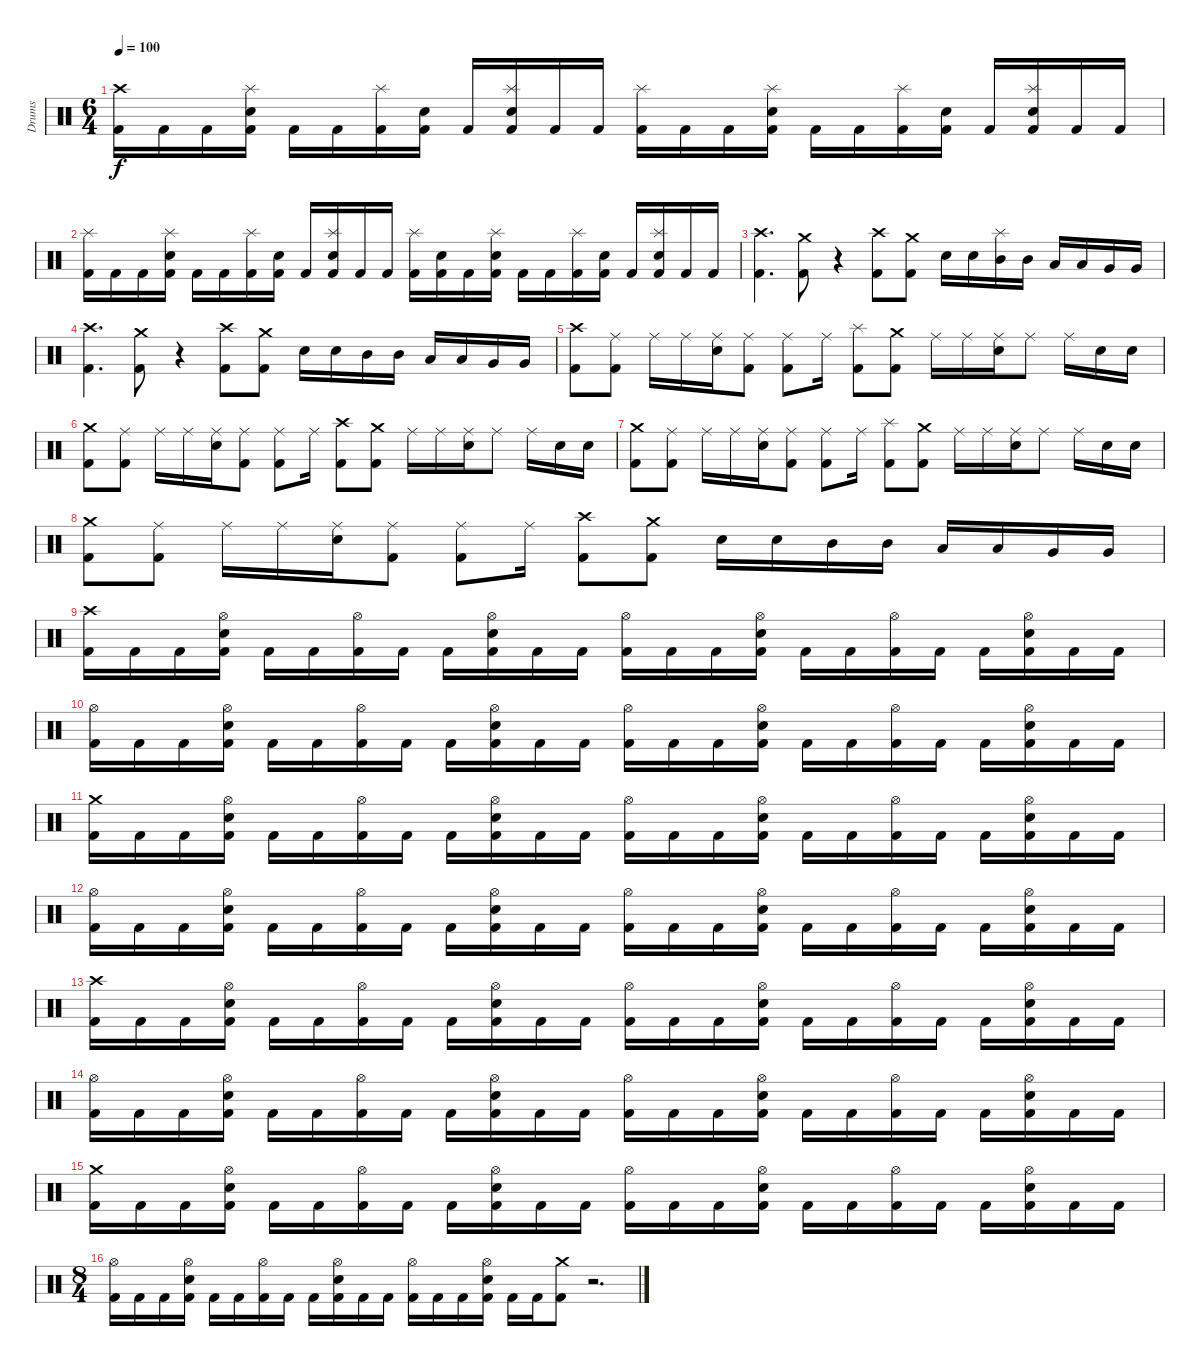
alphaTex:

\track ("Drums" "Drums") {instrument percussion}
\staff {score}
\articulation defaults
\ts (6 4)
\tempo 100
\clef neutral
\ks c
("Crash high (hit)" "Kick (hit) 2").16{dy f} "Kick (hit) 2".16 "Kick (hit) 2".16 ("Splash (hit)" "Electric Snare (hit)" "Kick (hit) 2").16 "Kick (hit) 2".16 "Kick (hit) 2".16 ("Splash (hit)" "Kick (hit) 2").16 ("Electric Snare (hit)" "Kick (hit) 2").16 "Kick (hit) 2".16 ("Splash (hit)" "Electric Snare (hit)" "Kick (hit) 2").16 "Kick (hit) 2".16 "Kick (hit) 2".16 ("Splash (hit)" "Kick (hit) 2").16 "Kick (hit) 2".16 "Kick (hit) 2".16 ("Splash (hit)" "Electric Snare (hit)" "Kick (hit) 2").16 "Kick (hit) 2".16 "Kick (hit) 2".16 ("Splash (hit)" "Kick (hit) 2").16 ("Electric Snare (hit)" "Kick (hit) 2").16 "Kick (hit) 2".16 ("Splash (hit)" "Electric Snare (hit)" "Kick (hit) 2").16 "Kick (hit) 2".16 "Kick (hit) 2".16 |
("Splash (hit)" "Kick (hit) 2").16 "Kick (hit) 2".16 "Kick (hit) 2".16 ("Splash (hit)" "Electric Snare (hit)" "Kick (hit) 2").16 "Kick (hit) 2".16 "Kick (hit) 2".16 ("Splash (hit)" "Kick (hit) 2").16 ("Electric Snare (hit)" "Kick (hit) 2").16 "Kick (hit) 2".16 ("Splash (hit)" "Electric Snare (hit)" "Kick (hit) 2").16 "Kick (hit) 2".16 "Kick (hit) 2".16 ("Splash (hit)" "Kick (hit) 2").16 ("Electric Snare (hit)" "Kick (hit) 2").16 "Kick (hit) 2".16 ("Splash (hit)" "Electric Snare (hit)" "Kick (hit) 2").16 "Kick (hit) 2".16 "Kick (hit) 2".16 ("Splash (hit)" "Kick (hit) 2").16 ("Electric Snare (hit)" "Kick (hit) 2").16 "Kick (hit) 2".16 ("Splash (hit)" "Electric Snare (hit)" "Kick (hit) 2").16 "Kick (hit) 2".16 "Kick (hit) 2".16 |
("Crash high (hit)" "Kick (hit) 2").4{d} ("Crash medium (hit)" "Kick (hit) 2").8 r.4{volume 0} ("Crash high (hit)" "Kick (hit) 2").8{volume 12} ("Crash medium (hit)" "Kick (hit) 2").8 "Electric Snare (hit)".16 "Electric Snare (hit)".16 ("Splash (hit)" "Mid Tom (hit)").16 "Mid Tom (hit)".16 "Low Tom (hit)".16 "Low Tom (hit)".16 "Very Low Tom (hit)".16 "Very Low Tom (hit)".16 |
("Crash high (hit)" "Kick (hit) 2").4{d} ("Crash medium (hit)" "Kick (hit) 2").8 r.4{volume 0} ("Crash high (hit)" "Kick (hit) 2").8{volume 12} ("Crash medium (hit)" "Kick (hit) 2").8 "Electric Snare (hit)".16 "Electric Snare (hit)".16 "Mid Tom (hit)".16 "Mid Tom (hit)".16 "Low Tom (hit)".16 "Low Tom (hit)".16 "Very Low Tom (hit)".16 "Very Low Tom (hit)".16 |
("Crash high (hit)" "Kick (hit) 2").8 ("Ride (middle)" "Kick (hit) 2").8 "Ride (middle)".16 "Ride (middle)".16 ("Ride (middle)" "Electric Snare (hit)").16 ("Ride (middle)" "Kick (hit) 2").8 ("Ride (middle)" "Kick (hit) 2").8 "Ride (middle)".16 ("Splash (hit)" "Kick (hit) 2").8 ("Crash medium (hit)" "Kick (hit) 2").8 "Ride (middle)".16 "Ride (middle)".16 ("Ride (middle)" "Electric Snare (hit)").16 "Ride (middle)".8 "Ride (middle)".16 "Electric Snare (hit)".16 "Electric Snare (hit)".16 |
("Crash medium (hit)" "Kick (hit) 2").8 ("Ride (middle)" "Kick (hit) 2").8 "Ride (middle)".16 "Ride (middle)".16 ("Ride (middle)" "Electric Snare (hit)").16 ("Ride (middle)" "Kick (hit) 2").8 ("Ride (middle)" "Kick (hit) 2").8 "Ride (middle)".16 ("Crash high (hit)" "Kick (hit) 2").8 ("Crash medium (hit)" "Kick (hit) 2").8 "Ride (middle)".16 "Ride (middle)".16 ("Ride (middle)" "Electric Snare (hit)").16 "Ride (middle)".8 "Ride (middle)".16 "Electric Snare (hit)".16 "Electric Snare (hit)".16 |
("Crash medium (hit)" "Kick (hit) 2").8 ("Ride (middle)" "Kick (hit) 2").8 "Ride (middle)".16 "Ride (middle)".16 ("Ride (middle)" "Electric Snare (hit)").16 ("Ride (middle)" "Kick (hit) 2").8 ("Ride (middle)" "Kick (hit) 2").8 "Ride (middle)".16 ("Splash (hit)" "Kick (hit) 2").8 ("Crash medium (hit)" "Kick (hit) 2").8 "Ride (middle)".16 "Ride (middle)".16 ("Ride (middle)" "Electric Snare (hit)").16 "Ride (middle)".8 "Ride (middle)".16 "Electric Snare (hit)".16 "Electric Snare (hit)".16 |
("Crash medium (hit)" "Kick (hit) 2").8 ("Ride (middle)" "Kick (hit) 2").8 "Ride (middle)".16 "Ride (middle)".16 ("Ride (middle)" "Electric Snare (hit)").16 ("Ride (middle)" "Kick (hit) 2").8 ("Ride (middle)" "Kick (hit) 2").8 "Ride (middle)".16 ("Crash high (hit)" "Kick (hit) 2").8 ("Crash medium (hit)" "Kick (hit) 2").8 "Electric Snare (hit)".16 "Electric Snare (hit)".16 "Mid Tom (hit)".16 "Mid Tom (hit)".16 "Low Tom (hit)".16 "Low Tom (hit)".16 "Very Low Tom (hit)".16 "Very Low Tom (hit)".16 |
("Crash high (hit)" "Kick (hit) 2").16 "Kick (hit) 2".16 "Kick (hit) 2".16 ("Hi-Hat (open)" "Electric Snare (hit)" "Kick (hit) 2").16 "Kick (hit) 2".16 "Kick (hit) 2".16 ("Hi-Hat (open)" "Kick (hit) 2").16 "Kick (hit) 2".16 "Kick (hit) 2".16 ("Hi-Hat (open)" "Electric Snare (hit)" "Kick (hit) 2").16 "Kick (hit) 2".16 "Kick (hit) 2".16 ("Hi-Hat (open)" "Kick (hit) 2").16 "Kick (hit) 2".16 "Kick (hit) 2".16 ("Hi-Hat (open)" "Electric Snare (hit)" "Kick (hit) 2").16 "Kick (hit) 2".16 "Kick (hit) 2".16 ("Hi-Hat (open)" "Kick (hit) 2").16 "Kick (hit) 2".16 "Kick (hit) 2".16 ("Hi-Hat (open)" "Electric Snare (hit)" "Kick (hit) 2").16 "Kick (hit) 2".16 "Kick (hit) 2".16 |
("Hi-Hat (open)" "Kick (hit) 2").16 "Kick (hit) 2".16 "Kick (hit) 2".16 ("Hi-Hat (open)" "Electric Snare (hit)" "Kick (hit) 2").16 "Kick (hit) 2".16 "Kick (hit) 2".16 ("Hi-Hat (open)" "Kick (hit) 2").16 "Kick (hit) 2".16 "Kick (hit) 2".16 ("Hi-Hat (open)" "Electric Snare (hit)" "Kick (hit) 2").16 "Kick (hit) 2".16 "Kick (hit) 2".16 ("Hi-Hat (open)" "Kick (hit) 2").16 "Kick (hit) 2".16 "Kick (hit) 2".16 ("Hi-Hat (open)" "Electric Snare (hit)" "Kick (hit) 2").16 "Kick (hit) 2".16 "Kick (hit) 2".16 ("Hi-Hat (open)" "Kick (hit) 2").16 "Kick (hit) 2".16 "Kick (hit) 2".16 ("Hi-Hat (open)" "Electric Snare (hit)" "Kick (hit) 2").16 "Kick (hit) 2".16 "Kick (hit) 2".16 |
("Crash medium (hit)" "Kick (hit) 2").16 "Kick (hit) 2".16 "Kick (hit) 2".16 ("Hi-Hat (open)" "Electric Snare (hit)" "Kick (hit) 2").16 "Kick (hit) 2".16 "Kick (hit) 2".16 ("Hi-Hat (open)" "Kick (hit) 2").16 "Kick (hit) 2".16 "Kick (hit) 2".16 ("Hi-Hat (open)" "Electric Snare (hit)" "Kick (hit) 2").16 "Kick (hit) 2".16 "Kick (hit) 2".16 ("Hi-Hat (open)" "Kick (hit) 2").16 "Kick (hit) 2".16 "Kick (hit) 2".16 ("Hi-Hat (open)" "Electric Snare (hit)" "Kick (hit) 2").16 "Kick (hit) 2".16 "Kick (hit) 2".16 ("Hi-Hat (open)" "Kick (hit) 2").16 "Kick (hit) 2".16 "Kick (hit) 2".16 ("Hi-Hat (open)" "Electric Snare (hit)" "Kick (hit) 2").16 "Kick (hit) 2".16 "Kick (hit) 2".16 |
("Hi-Hat (open)" "Kick (hit) 2").16 "Kick (hit) 2".16 "Kick (hit) 2".16 ("Hi-Hat (open)" "Electric Snare (hit)" "Kick (hit) 2").16 "Kick (hit) 2".16 "Kick (hit) 2".16 ("Hi-Hat (open)" "Kick (hit) 2").16 "Kick (hit) 2".16 "Kick (hit) 2".16 ("Hi-Hat (open)" "Electric Snare (hit)" "Kick (hit) 2").16 "Kick (hit) 2".16 "Kick (hit) 2".16 ("Hi-Hat (open)" "Kick (hit) 2").16 "Kick (hit) 2".16 "Kick (hit) 2".16 ("Hi-Hat (open)" "Electric Snare (hit)" "Kick (hit) 2").16 "Kick (hit) 2".16 "Kick (hit) 2".16 ("Hi-Hat (open)" "Kick (hit) 2").16 "Kick (hit) 2".16 "Kick (hit) 2".16 ("Hi-Hat (open)" "Electric Snare (hit)" "Kick (hit) 2").16 "Kick (hit) 2".16 "Kick (hit) 2".16 |
("Crash high (hit)" "Kick (hit) 2").16 "Kick (hit) 2".16 "Kick (hit) 2".16 ("Hi-Hat (open)" "Electric Snare (hit)" "Kick (hit) 2").16 "Kick (hit) 2".16 "Kick (hit) 2".16 ("Hi-Hat (open)" "Kick (hit) 2").16 "Kick (hit) 2".16 "Kick (hit) 2".16 ("Hi-Hat (open)" "Electric Snare (hit)" "Kick (hit) 2").16 "Kick (hit) 2".16 "Kick (hit) 2".16 ("Hi-Hat (open)" "Kick (hit) 2").16 "Kick (hit) 2".16 "Kick (hit) 2".16 ("Hi-Hat (open)" "Electric Snare (hit)" "Kick (hit) 2").16 "Kick (hit) 2".16 "Kick (hit) 2".16 ("Hi-Hat (open)" "Kick (hit) 2").16 "Kick (hit) 2".16 "Kick (hit) 2".16 ("Hi-Hat (open)" "Electric Snare (hit)" "Kick (hit) 2").16 "Kick (hit) 2".16 "Kick (hit) 2".16 |
("Hi-Hat (open)" "Kick (hit) 2").16 "Kick (hit) 2".16 "Kick (hit) 2".16 ("Hi-Hat (open)" "Electric Snare (hit)" "Kick (hit) 2").16 "Kick (hit) 2".16 "Kick (hit) 2".16 ("Hi-Hat (open)" "Kick (hit) 2").16 "Kick (hit) 2".16 "Kick (hit) 2".16 ("Hi-Hat (open)" "Electric Snare (hit)" "Kick (hit) 2").16 "Kick (hit) 2".16 "Kick (hit) 2".16 ("Hi-Hat (open)" "Kick (hit) 2").16 "Kick (hit) 2".16 "Kick (hit) 2".16 ("Hi-Hat (open)" "Electric Snare (hit)" "Kick (hit) 2").16 "Kick (hit) 2".16 "Kick (hit) 2".16 ("Hi-Hat (open)" "Kick (hit) 2").16 "Kick (hit) 2".16 "Kick (hit) 2".16 ("Hi-Hat (open)" "Electric Snare (hit)" "Kick (hit) 2").16 "Kick (hit) 2".16 "Kick (hit) 2".16 |
("Crash medium (hit)" "Kick (hit) 2").16 "Kick (hit) 2".16 "Kick (hit) 2".16 ("Hi-Hat (open)" "Electric Snare (hit)" "Kick (hit) 2").16 "Kick (hit) 2".16 "Kick (hit) 2".16 ("Hi-Hat (open)" "Kick (hit) 2").16 "Kick (hit) 2".16 "Kick (hit) 2".16 ("Hi-Hat (open)" "Electric Snare (hit)" "Kick (hit) 2").16 "Kick (hit) 2".16 "Kick (hit) 2".16 ("Hi-Hat (open)" "Kick (hit) 2").16 "Kick (hit) 2".16 "Kick (hit) 2".16 ("Hi-Hat (open)" "Electric Snare (hit)" "Kick (hit) 2").16 "Kick (hit) 2".16 "Kick (hit) 2".16 ("Hi-Hat (open)" "Kick (hit) 2").16 "Kick (hit) 2".16 "Kick (hit) 2".16 ("Hi-Hat (open)" "Electric Snare (hit)" "Kick (hit) 2").16 "Kick (hit) 2".16 "Kick (hit) 2".16 |
\ts (8 4)
("Hi-Hat (open)" "Kick (hit) 2").16 "Kick (hit) 2".16 "Kick (hit) 2".16 ("Hi-Hat (open)" "Electric Snare (hit)" "Kick (hit) 2").16 "Kick (hit) 2".16 "Kick (hit) 2".16 ("Hi-Hat (open)" "Kick (hit) 2").16 "Kick (hit) 2".16 "Kick (hit) 2".16 ("Hi-Hat (open)" "Electric Snare (hit)" "Kick (hit) 2").16 "Kick (hit) 2".16 "Kick (hit) 2".16 ("Hi-Hat (open)" "Kick (hit) 2").16 "Kick (hit) 2".16 "Kick (hit) 2".16 ("Hi-Hat (open)" "Electric Snare (hit)" "Kick (hit) 2").16 "Kick (hit) 2".16 "Kick (hit) 2".16 ("Crash medium (hit)" "Kick (hit) 2").8 r.2{d volume 0}
